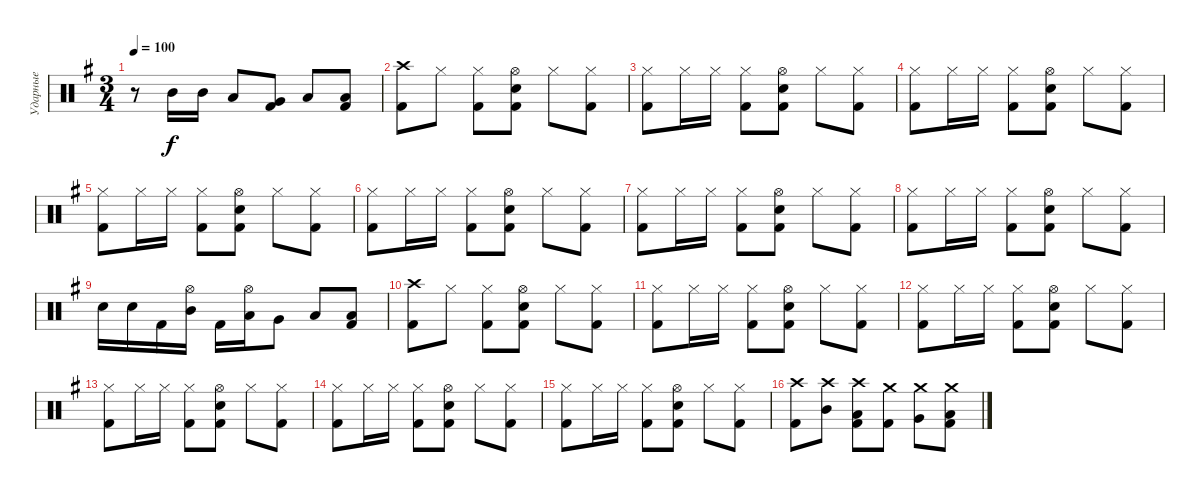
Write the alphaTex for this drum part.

\track ("Ударные" "Ударные") {instrument percussion}
\staff {score}
\articulation defaults
\ts (3 4)
\tempo 100
\clef neutral
\ks eminor
r.8{dy f} "Mid Tom (hit)".16 "Mid Tom (hit)".16 "Low Tom (hit)".8 ("Very Low Tom (hit)" "Kick (hit) 2").8 "Low Floor Tom (hit)".8 ("Low Floor Tom (hit)" "Kick (hit) 2").8 |
("Kick (hit) 2" "Crash high (hit)").8 "Hi-Hat (closed)".8 ("Kick (hit) 2" "Hi-Hat (closed)").8 ("Snare (hit) 2" "Kick (hit) 2" "Hi-Hat (open)").8 "Hi-Hat (closed)".8 ("Kick (hit) 2" "Hi-Hat (closed)").8 |
("Kick (hit) 2" "Hi-Hat (closed)").8 "Hi-Hat (closed)".16 "Hi-Hat (closed)".16 ("Kick (hit) 2" "Hi-Hat (closed)").8 ("Snare (hit) 2" "Kick (hit) 2" "Hi-Hat (open)").8 "Hi-Hat (closed)".8 ("Kick (hit) 2" "Hi-Hat (closed)").8 |
("Kick (hit) 2" "Hi-Hat (closed)").8 "Hi-Hat (closed)".16 "Hi-Hat (closed)".16 ("Kick (hit) 2" "Hi-Hat (closed)").8 ("Snare (hit) 2" "Kick (hit) 2" "Hi-Hat (open)").8 "Hi-Hat (closed)".8 ("Kick (hit) 2" "Hi-Hat (closed)").8 |
("Kick (hit) 2" "Hi-Hat (closed)").8 "Hi-Hat (closed)".16 "Hi-Hat (closed)".16 ("Kick (hit) 2" "Hi-Hat (closed)").8 ("Snare (hit) 2" "Kick (hit) 2" "Hi-Hat (open)").8 "Hi-Hat (closed)".8 ("Kick (hit) 2" "Hi-Hat (closed)").8 |
("Kick (hit) 2" "Hi-Hat (closed)").8 "Hi-Hat (closed)".16 "Hi-Hat (closed)".16 ("Kick (hit) 2" "Hi-Hat (closed)").8 ("Snare (hit) 2" "Kick (hit) 2" "Hi-Hat (open)").8 "Hi-Hat (closed)".8 ("Kick (hit) 2" "Hi-Hat (closed)").8 |
("Kick (hit) 2" "Hi-Hat (closed)").8 "Hi-Hat (closed)".16 "Hi-Hat (closed)".16 ("Kick (hit) 2" "Hi-Hat (closed)").8 ("Snare (hit) 2" "Kick (hit) 2" "Hi-Hat (open)").8 "Hi-Hat (closed)".8 ("Kick (hit) 2" "Hi-Hat (closed)").8 |
("Kick (hit) 2" "Hi-Hat (closed)").8 "Hi-Hat (closed)".16 "Hi-Hat (closed)".16 ("Kick (hit) 2" "Hi-Hat (closed)").8 ("Snare (hit) 2" "Kick (hit) 2" "Hi-Hat (open)").8 "Hi-Hat (closed)".8 ("Kick (hit) 2" "Hi-Hat (closed)").8 |
"Snare (hit) 2".16 "Snare (hit) 2".16 "Kick (hit) 2".16 ("Mid Tom (hit)" "Hi-Hat (open)").16 "Kick (hit) 2".16 ("Low Tom (hit)" "Hi-Hat (open)").16 "Very Low Tom (hit)".8 "Low Floor Tom (hit)".8 ("Low Floor Tom (hit)" "Kick (hit) 2").8 |
("Kick (hit) 2" "Crash high (hit)").8 "Hi-Hat (closed)".8 ("Kick (hit) 2" "Hi-Hat (closed)").8 ("Snare (hit) 2" "Kick (hit) 2" "Hi-Hat (open)").8 "Hi-Hat (closed)".8 ("Kick (hit) 2" "Hi-Hat (closed)").8 |
("Kick (hit) 2" "Hi-Hat (closed)").8 "Hi-Hat (closed)".16 "Hi-Hat (closed)".16 ("Kick (hit) 2" "Hi-Hat (closed)").8 ("Snare (hit) 2" "Kick (hit) 2" "Hi-Hat (open)").8 "Hi-Hat (closed)".8 ("Kick (hit) 2" "Hi-Hat (closed)").8 |
("Kick (hit) 2" "Hi-Hat (closed)").8 "Hi-Hat (closed)".16 "Hi-Hat (closed)".16 ("Kick (hit) 2" "Hi-Hat (closed)").8 ("Snare (hit) 2" "Kick (hit) 2" "Hi-Hat (open)").8 "Hi-Hat (closed)".8 ("Kick (hit) 2" "Hi-Hat (closed)").8 |
("Kick (hit) 2" "Hi-Hat (closed)").8 "Hi-Hat (closed)".16 "Hi-Hat (closed)".16 ("Kick (hit) 2" "Hi-Hat (closed)").8 ("Snare (hit) 2" "Kick (hit) 2" "Hi-Hat (open)").8 "Hi-Hat (closed)".8 ("Kick (hit) 2" "Hi-Hat (closed)").8 |
("Kick (hit) 2" "Hi-Hat (closed)").8 "Hi-Hat (closed)".16 "Hi-Hat (closed)".16 ("Kick (hit) 2" "Hi-Hat (closed)").8 ("Snare (hit) 2" "Kick (hit) 2" "Hi-Hat (open)").8 "Hi-Hat (closed)".8 ("Kick (hit) 2" "Hi-Hat (closed)").8 |
("Kick (hit) 2" "Hi-Hat (closed)").8 "Hi-Hat (closed)".16 "Hi-Hat (closed)".16 ("Kick (hit) 2" "Hi-Hat (closed)").8 ("Snare (hit) 2" "Kick (hit) 2" "Hi-Hat (open)").8 "Hi-Hat (closed)".8 ("Kick (hit) 2" "Hi-Hat (closed)").8 |
("Kick (hit) 2" "Crash high (hit)").8 ("Mid Tom (hit)" "Crash high (hit)").8 ("Low Tom (hit)" "Kick (hit) 2" "Crash high (hit)").8 ("Kick (hit) 2" "Crash medium (hit)").8 ("Very Low Tom (hit)" "Crash medium (hit)").8 ("Low Floor Tom (hit)" "Kick (hit) 2" "Crash medium (hit)").8
